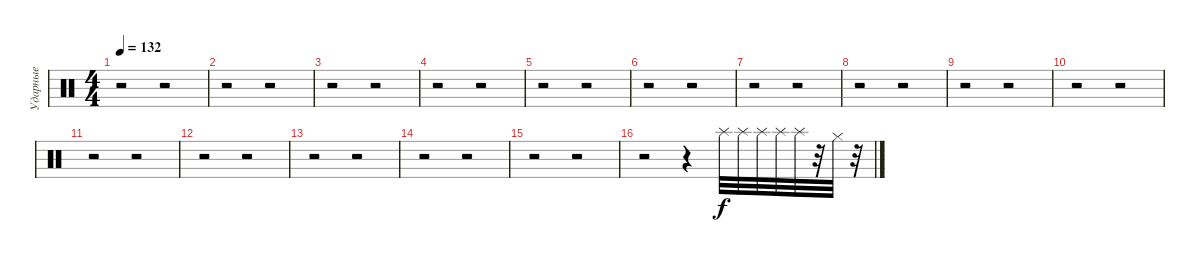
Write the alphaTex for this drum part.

\track ("Ударные" "Ударные") {instrument percussion}
\staff {score}
\articulation defaults
\ts (4 4)
\tempo 132
\clef neutral
\ks c
r.2{dy f} r.2 |
r.2 r.2 |
r.2 r.2 |
r.2 r.2 |
r.2 r.2 |
r.2 r.2 |
r.2 r.2 |
r.2 r.2 |
r.2 r.2 |
r.2 r.2 |
r.2 r.2 |
r.2 r.2 |
r.2 r.2 |
r.2 r.2 |
r.2 r.2 |
r.2 r.4 "Splash (hit)".32 "Splash (hit)".32 "Splash (hit)".32 "Splash (hit)".32 "Splash (hit)".32 r.32 "Hi-Hat (closed)".32 r.32
